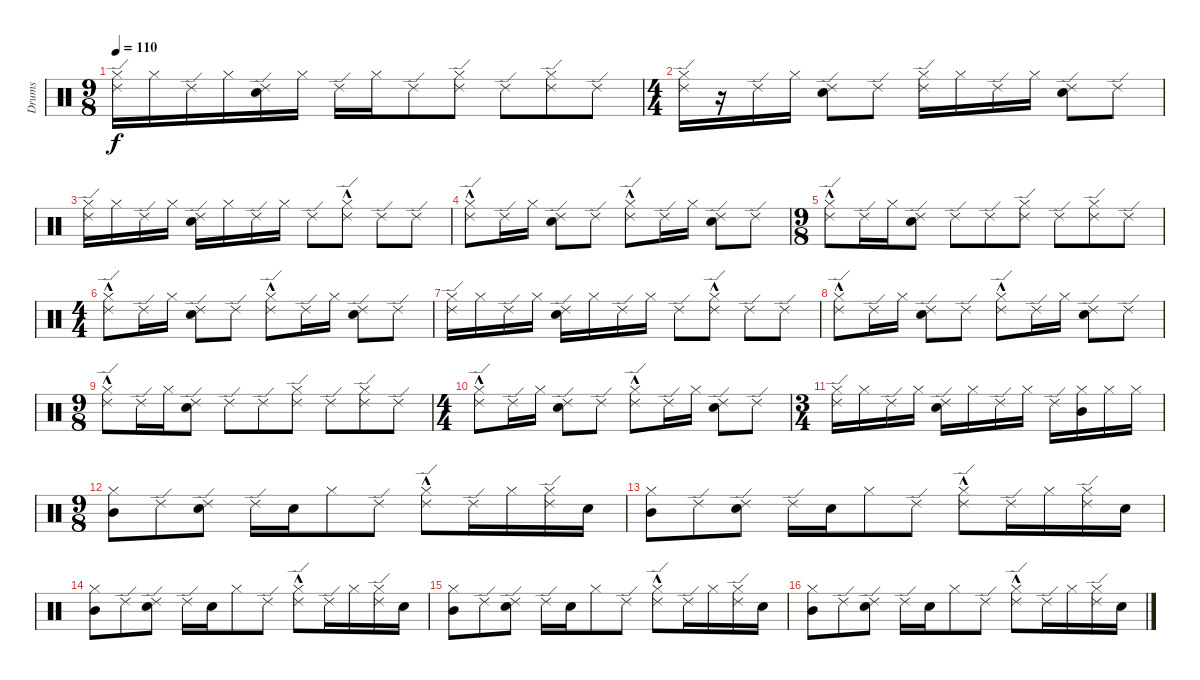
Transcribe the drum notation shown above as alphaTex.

\track ("Drums" "Drums") {instrument percussion}
\staff {score}
\articulation defaults
\ts (9 8)
\tempo 110
\clef neutral
\ks c
("Hi-Hat (closed)" "Ride (edge) 2").16{dy f} "Hi-Hat (closed)".16 "Ride (edge) 2".16 "Hi-Hat (closed)".16 ("Snare (hit) 2" "Ride (edge) 2").16 "Hi-Hat (closed)".16 "Ride (edge) 2".16 "Hi-Hat (closed)".16 "Ride (edge) 2".8 ("Hi-Hat (closed)" "Ride (edge) 2").8 "Ride (edge) 2".8 ("Hi-Hat (closed)" "Ride (edge) 2").8 "Ride (edge) 2".8 |
\ts (4 4)
("Hi-Hat (closed)" "Ride (edge) 2").16 r.16 "Ride (edge) 2".16 "Hi-Hat (closed)".16 ("Snare (hit) 2" "Ride (edge) 2").8 "Ride (edge) 2".8 ("Hi-Hat (closed)" "Ride (edge) 2").16 "Hi-Hat (closed)".16 "Ride (edge) 2".16 "Hi-Hat (closed)".16 ("Snare (hit) 2" "Ride (edge) 2").8 "Ride (edge) 2".8 |
("Hi-Hat (closed)" "Ride (edge) 2").16 "Hi-Hat (closed)".16 "Ride (edge) 2".16 "Hi-Hat (closed)".16 ("Snare (hit) 2" "Ride (edge) 2").16 "Hi-Hat (closed)".16 "Ride (edge) 2".16 "Hi-Hat (closed)".16 "Ride (edge) 2".8 ("Hi-Hat (closed)"{hac} "Ride (edge) 2").8 "Ride (edge) 2".8 "Ride (edge) 2".8 |
("Hi-Hat (closed)"{hac} "Ride (edge) 2").8 "Ride (edge) 2".16 "Hi-Hat (closed)".16 ("Snare (hit) 2" "Ride (edge) 2").8 "Ride (edge) 2".8 ("Hi-Hat (closed)"{hac} "Ride (edge) 2").8 "Ride (edge) 2".16 "Hi-Hat (closed)".16 ("Snare (hit) 2" "Ride (edge) 2").8 "Ride (edge) 2".8 |
\ts (9 8)
("Hi-Hat (closed)"{hac} "Ride (edge) 2").8 "Ride (edge) 2".16 "Hi-Hat (closed)".16 ("Snare (hit) 2" "Ride (edge) 2").8 "Ride (edge) 2".8 "Ride (edge) 2".8 ("Hi-Hat (closed)" "Ride (edge) 2").8 "Ride (edge) 2".8 ("Hi-Hat (closed)" "Ride (edge) 2").8 "Ride (edge) 2".8 |
\ts (4 4)
("Hi-Hat (closed)"{hac} "Ride (edge) 2").8 "Ride (edge) 2".16 "Hi-Hat (closed)".16 ("Snare (hit) 2" "Ride (edge) 2").8 "Ride (edge) 2".8 ("Hi-Hat (closed)"{hac} "Ride (edge) 2").8 "Ride (edge) 2".16 "Hi-Hat (closed)".16 ("Snare (hit) 2" "Ride (edge) 2").8 "Ride (edge) 2".8 |
("Hi-Hat (closed)" "Ride (edge) 2").16 "Hi-Hat (closed)".16 "Ride (edge) 2".16 "Hi-Hat (closed)".16 ("Snare (hit) 2" "Ride (edge) 2").16 "Hi-Hat (closed)".16 "Ride (edge) 2".16 "Hi-Hat (closed)".16 "Ride (edge) 2".8 ("Hi-Hat (closed)"{hac} "Ride (edge) 2").8 "Ride (edge) 2".8 "Ride (edge) 2".8 |
("Hi-Hat (closed)"{hac} "Ride (edge) 2").8 "Ride (edge) 2".16 "Hi-Hat (closed)".16 ("Snare (hit) 2" "Ride (edge) 2").8 "Ride (edge) 2".8 ("Hi-Hat (closed)"{hac} "Ride (edge) 2").8 "Ride (edge) 2".16 "Hi-Hat (closed)".16 ("Snare (hit) 2" "Ride (edge) 2").8 "Ride (edge) 2".8 |
\ts (9 8)
("Hi-Hat (closed)"{hac} "Ride (edge) 2").8 "Ride (edge) 2".16 "Hi-Hat (closed)".16 ("Snare (hit) 2" "Ride (edge) 2").8 "Ride (edge) 2".8 "Ride (edge) 2".8 ("Hi-Hat (closed)" "Ride (edge) 2").8 "Ride (edge) 2".8 ("Hi-Hat (closed)" "Ride (edge) 2").8 "Ride (edge) 2".8 |
\ts (4 4)
("Hi-Hat (closed)"{hac} "Ride (edge) 2").8 "Ride (edge) 2".16 "Hi-Hat (closed)".16 ("Snare (hit) 2" "Ride (edge) 2").8 "Ride (edge) 2".8 ("Hi-Hat (closed)"{hac} "Ride (edge) 2").8 "Ride (edge) 2".16 "Hi-Hat (closed)".16 ("Snare (hit) 2" "Ride (edge) 2").8 "Ride (edge) 2".8 |
\ts (3 4)
("Hi-Hat (closed)" "Ride (edge) 2").16 "Hi-Hat (closed)".16 "Ride (edge) 2".16 "Hi-Hat (closed)".16 ("Snare (hit) 2" "Ride (edge) 2").16 "Hi-Hat (closed)".16 "Ride (edge) 2".16 "Hi-Hat (closed)".16 "Ride (edge) 2".16 ("Hi-Hat (closed)" "Mid Tom (hit)").16 "Hi-Hat (closed)".16 "Hi-Hat (closed)".16 |
\ts (9 8)
("Hi-Hat (closed)" "Mid Tom (hit)").8 "Ride (edge) 2".8 ("Snare (hit) 2" "Ride (edge) 2").8 "Ride (edge) 2".16 "Snare (hit) 2".16 "Hi-Hat (closed)".8 "Ride (edge) 2".8 ("Hi-Hat (closed)"{hac} "Ride (edge) 2").8 "Ride (edge) 2".16 "Hi-Hat (closed)".16 ("Hi-Hat (closed)" "Ride (edge) 2").16 "Snare (hit) 2".16 |
("Hi-Hat (closed)" "Mid Tom (hit)").8 "Ride (edge) 2".8 ("Snare (hit) 2" "Ride (edge) 2").8 "Ride (edge) 2".16 "Snare (hit) 2".16 "Hi-Hat (closed)".8 "Ride (edge) 2".8 ("Hi-Hat (closed)"{hac} "Ride (edge) 2").8 "Ride (edge) 2".16 "Hi-Hat (closed)".16 ("Hi-Hat (closed)" "Ride (edge) 2").16 "Snare (hit) 2".16 |
("Hi-Hat (closed)" "Mid Tom (hit)").8 "Ride (edge) 2".8 ("Snare (hit) 2" "Ride (edge) 2").8 "Ride (edge) 2".16 "Snare (hit) 2".16 "Hi-Hat (closed)".8 "Ride (edge) 2".8 ("Hi-Hat (closed)"{hac} "Ride (edge) 2").8 "Ride (edge) 2".16 "Hi-Hat (closed)".16 ("Hi-Hat (closed)" "Ride (edge) 2").16 "Snare (hit) 2".16 |
("Hi-Hat (closed)" "Mid Tom (hit)").8 "Ride (edge) 2".8 ("Snare (hit) 2" "Ride (edge) 2").8 "Ride (edge) 2".16 "Snare (hit) 2".16 "Hi-Hat (closed)".8 "Ride (edge) 2".8 ("Hi-Hat (closed)"{hac} "Ride (edge) 2").8 "Ride (edge) 2".16 "Hi-Hat (closed)".16 ("Hi-Hat (closed)" "Ride (edge) 2").16 "Snare (hit) 2".16 |
("Hi-Hat (closed)" "Mid Tom (hit)").8 "Ride (edge) 2".8 ("Snare (hit) 2" "Ride (edge) 2").8 "Ride (edge) 2".16 "Snare (hit) 2".16 "Hi-Hat (closed)".8 "Ride (edge) 2".8 ("Hi-Hat (closed)"{hac} "Ride (edge) 2").8 "Ride (edge) 2".16 "Hi-Hat (closed)".16 ("Hi-Hat (closed)" "Ride (edge) 2").16 "Snare (hit) 2".16
